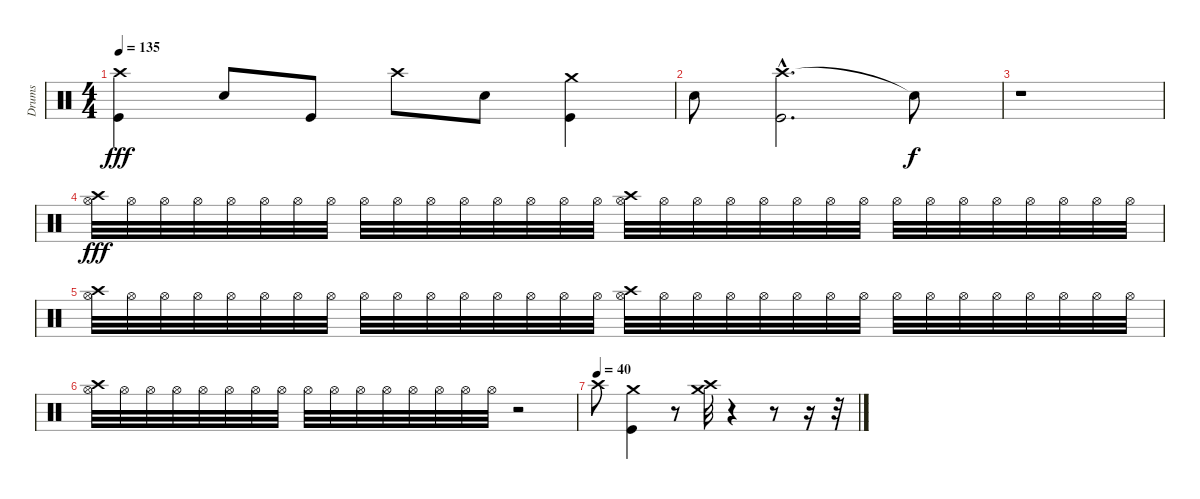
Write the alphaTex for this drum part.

\track ("Drums" "Drums") {instrument percussion}
\staff {score}
\articulation defaults
\ts (4 4)
\tempo 135
\clef neutral
\ks c
("Kick (hit)" "Crash high (hit)").4{dy fff} "Snare (hit) 2".8 "Kick (hit)".8 "Crash high (hit)".8 "Snare (hit) 2".8 ("Kick (hit)" "Crash medium (hit)").4 |
"Snare (hit) 2".8 ("Crash high (hit)"{hac} "Kick (hit)"{hac}).2{d} "Snare (hit)"{t}.8{dy f} |
r.1 |
("Crash high (hit)" "Hi-Hat (open)").32{dy fff} "Hi-Hat (open)".32 "Hi-Hat (open)".32 "Hi-Hat (open)".32 "Hi-Hat (open)".32 "Hi-Hat (open)".32 "Hi-Hat (open)".32 "Hi-Hat (open)".32 "Hi-Hat (open)".32 "Hi-Hat (open)".32 "Hi-Hat (open)".32 "Hi-Hat (open)".32 "Hi-Hat (open)".32 "Hi-Hat (open)".32 "Hi-Hat (open)".32 "Hi-Hat (open)".32 ("Crash high (hit)" "Hi-Hat (open)").32 "Hi-Hat (open)".32 "Hi-Hat (open)".32 "Hi-Hat (open)".32 "Hi-Hat (open)".32 "Hi-Hat (open)".32 "Hi-Hat (open)".32 "Hi-Hat (open)".32 "Hi-Hat (open)".32 "Hi-Hat (open)".32 "Hi-Hat (open)".32 "Hi-Hat (open)".32 "Hi-Hat (open)".32 "Hi-Hat (open)".32 "Hi-Hat (open)".32 "Hi-Hat (open)".32 |
("Crash high (hit)" "Hi-Hat (open)").32 "Hi-Hat (open)".32 "Hi-Hat (open)".32 "Hi-Hat (open)".32 "Hi-Hat (open)".32 "Hi-Hat (open)".32 "Hi-Hat (open)".32 "Hi-Hat (open)".32 "Hi-Hat (open)".32 "Hi-Hat (open)".32 "Hi-Hat (open)".32 "Hi-Hat (open)".32 "Hi-Hat (open)".32 "Hi-Hat (open)".32 "Hi-Hat (open)".32 "Hi-Hat (open)".32 ("Crash high (hit)" "Hi-Hat (open)").32 "Hi-Hat (open)".32 "Hi-Hat (open)".32 "Hi-Hat (open)".32 "Hi-Hat (open)".32 "Hi-Hat (open)".32 "Hi-Hat (open)".32 "Hi-Hat (open)".32 "Hi-Hat (open)".32 "Hi-Hat (open)".32 "Hi-Hat (open)".32 "Hi-Hat (open)".32 "Hi-Hat (open)".32 "Hi-Hat (open)".32 "Hi-Hat (open)".32 "Hi-Hat (open)".32 |
("Crash high (hit)" "Hi-Hat (open)").32 "Hi-Hat (open)".32 "Hi-Hat (open)".32 "Hi-Hat (open)".32 "Hi-Hat (open)".32 "Hi-Hat (open)".32 "Hi-Hat (open)".32 "Hi-Hat (open)".32 "Hi-Hat (open)".32 "Hi-Hat (open)".32 "Hi-Hat (open)".32 "Hi-Hat (open)".32 "Hi-Hat (open)".32 "Hi-Hat (open)".32 "Hi-Hat (open)".32 "Hi-Hat (open)".32 r.2 |
\tempo (40)
"Crash high (hit)".8 ("Kick (hit)" "Crash medium (hit)").4 r.8 ("Crash medium (hit)" "Crash high (hit)").32 r.4 r.8 r.16 r.32
